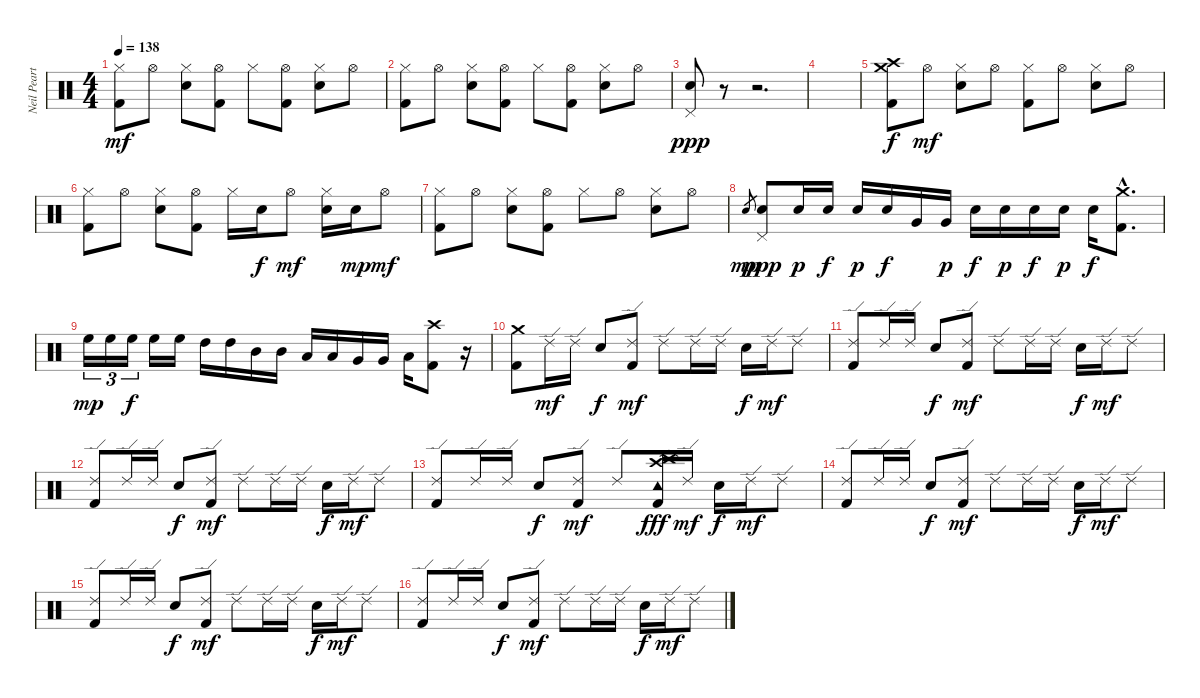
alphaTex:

\track ("Neil Peart, Percusión" "Neil Peart") {instrument percussion}
\staff {score}
\articulation defaults
\ts (4 4)
\tempo 138
\clef neutral
\ks c
("Hi-Hat (closed)" "Kick (hit) 2").8{dy mf} "Hi-Hat (open)".8 ("Hi-Hat (closed)" "Electric Snare (hit)").8 ("Hi-Hat (open)" "Kick (hit) 2").8 "Hi-Hat (closed)".8 ("Hi-Hat (open)" "Kick (hit) 2").8 ("Hi-Hat (closed)" "Electric Snare (hit)").8 "Hi-Hat (open)".8 |
("Hi-Hat (closed)" "Kick (hit) 2").8 "Hi-Hat (open)".8 ("Hi-Hat (closed)" "Electric Snare (hit)").8 ("Hi-Hat (open)" "Kick (hit) 2").8 "Hi-Hat (closed)".8 ("Hi-Hat (open)" "Kick (hit) 2").8 ("Hi-Hat (closed)" "Electric Snare (hit)").8 "Hi-Hat (open)".8 |
("Pedal Hi-Hat (hit)" "Electric Snare (hit)").8{dy ppp} r.8 r.2{d} |
|
("Crash medium (hit)" "Crash high (hit)" "Kick (hit) 2").8{dy f} "Hi-Hat (open)".8{dy mf} ("Hi-Hat (closed)" "Electric Snare (hit)").8 "Hi-Hat (open)".8 ("Hi-Hat (closed)" "Kick (hit) 2").8 "Hi-Hat (open)".8 ("Hi-Hat (closed)" "Electric Snare (hit)").8 "Hi-Hat (open)".8 |
("Hi-Hat (closed)" "Kick (hit) 2").8 "Hi-Hat (open)".8 ("Hi-Hat (closed)" "Electric Snare (hit)").8 ("Hi-Hat (open)" "Kick (hit) 2").8 "Hi-Hat (closed)".16 "Electric Snare (hit)".16{dy f} "Hi-Hat (open)".8{dy mf} ("Hi-Hat (closed)" "Electric Snare (hit)").16 "Electric Snare (hit)".16{dy mp} "Hi-Hat (open)".8{dy mf} |
("Hi-Hat (closed)" "Kick (hit) 2").8 "Hi-Hat (open)".8 ("Hi-Hat (closed)" "Electric Snare (hit)").8 ("Hi-Hat (open)" "Kick (hit) 2").8 "Hi-Hat (closed)".8 "Hi-Hat (open)".8 ("Hi-Hat (closed)" "Electric Snare (hit)").8 "Hi-Hat (open)".8 |
"Electric Snare (hit)".8{gr dy mp} ("Pedal Hi-Hat (hit)" "Electric Snare (hit)").8{dy ppp} "Electric Snare (hit)".16{dy p} "Electric Snare (hit)".16{dy f} "Electric Snare (hit)".16{dy p} "Electric Snare (hit)".16{dy f} "Very Low Tom (hit)".16 "Very Low Tom (hit)".16{dy p} "Electric Snare (hit)".16{dy f} "Electric Snare (hit)".16{dy p} "Electric Snare (hit)".16{dy f} "Electric Snare (hit)".16{dy p} "Electric Snare (hit)".16{dy f} ("Crash medium (hit)"{hac} "Kick (hit) 2"{hac}).8{d} |
"High Floor Tom (hit)".16{tu (3 2) dy mp} "High Floor Tom (hit)".16{tu (3 2)} "High Floor Tom (hit)".16{tu (3 2) dy f} "High Floor Tom (hit)".16 "High Floor Tom (hit)".16 "High Tom (hit)".16 "High Tom (hit)".16 "Mid Tom (hit)".16 "Mid Tom (hit)".16 "Low Tom (hit)".16 "Low Tom (hit)".16 "Very Low Tom (hit)".16 "Very Low Tom (hit)".16 "Low Floor Tom (hit)".16 ("Crash high (hit)" "Kick (hit) 2").8 r.16 |
("Crash medium (hit)" "Kick (hit) 2").8 "Ride (edge) 2".16{dy mf} "Ride (edge) 2".16 "Electric Snare (hit)".8{dy f} ("Ride (edge) 2" "Kick (hit) 2").8{dy mf} "Ride (edge) 2".8 "Ride (edge) 2".16 "Ride (edge) 2".16 "Electric Snare (hit)".16{dy f} "Ride (edge) 2".16{dy mf} "Ride (edge) 2".8 |
("Ride (edge) 2" "Kick (hit) 2").8 "Ride (edge) 2".16 "Ride (edge) 2".16 "Electric Snare (hit)".8{dy f} ("Ride (edge) 2" "Kick (hit) 2").8{dy mf} "Ride (edge) 2".8 "Ride (edge) 2".16 "Ride (edge) 2".16 "Electric Snare (hit)".16{dy f} "Ride (edge) 2".16{dy mf} "Ride (edge) 2".8 |
("Ride (edge) 2" "Kick (hit) 2").8 "Ride (edge) 2".16 "Ride (edge) 2".16 "Electric Snare (hit)".8{dy f} ("Ride (edge) 2" "Kick (hit) 2").8{dy mf} "Ride (edge) 2".8 "Ride (edge) 2".16 "Ride (edge) 2".16 "Electric Snare (hit)".16{dy f} "Ride (edge) 2".16{dy mf} "Ride (edge) 2".8 |
("Ride (edge) 2" "Kick (hit) 2").8 "Ride (edge) 2".16 "Ride (edge) 2".16 "Electric Snare (hit)".8{dy f} ("Ride (edge) 2" "Kick (hit) 2").8{dy mf} "Ride (edge) 2".8 ("Crash high (hit)" "China (hit)" "Tambourine (hit)" "Kick (hit) 2").16{dy fff} "Ride (edge) 2".16{dy mf} "Electric Snare (hit)".16{dy f} "Ride (edge) 2".16{dy mf} "Ride (edge) 2".8 |
("Ride (edge) 2" "Kick (hit) 2").8 "Ride (edge) 2".16 "Ride (edge) 2".16 "Electric Snare (hit)".8{dy f} ("Ride (edge) 2" "Kick (hit) 2").8{dy mf} "Ride (edge) 2".8 "Ride (edge) 2".16 "Ride (edge) 2".16 "Electric Snare (hit)".16{dy f} "Ride (edge) 2".16{dy mf} "Ride (edge) 2".8 |
("Ride (edge) 2" "Kick (hit) 2").8 "Ride (edge) 2".16 "Ride (edge) 2".16 "Electric Snare (hit)".8{dy f} ("Ride (edge) 2" "Kick (hit) 2").8{dy mf} "Ride (edge) 2".8 "Ride (edge) 2".16 "Ride (edge) 2".16 "Electric Snare (hit)".16{dy f} "Ride (edge) 2".16{dy mf} "Ride (edge) 2".8 |
("Ride (edge) 2" "Kick (hit) 2").8 "Ride (edge) 2".16 "Ride (edge) 2".16 "Electric Snare (hit)".8{dy f} ("Ride (edge) 2" "Kick (hit) 2").8{dy mf} "Ride (edge) 2".8 "Ride (edge) 2".16 "Ride (edge) 2".16 "Electric Snare (hit)".16{dy f} "Ride (edge) 2".16{dy mf} "Ride (edge) 2".8
